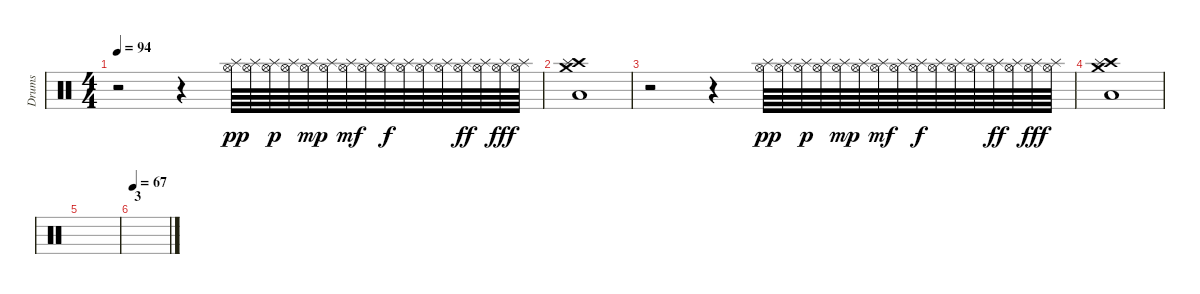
\track ("Drums" "Drums") {instrument percussion}
\staff {score}
\articulation defaults
\ts (4 4)
\tempo 94
\clef neutral
\ks c
r.2{dy fff} r.4 ("Splash (hit)" "Hi-Hat (open)").64{dy pp} ("Splash (hit)" "Hi-Hat (open)").64 ("Splash (hit)" "Hi-Hat (open)").64{dy p} ("Splash (hit)" "Hi-Hat (open)").64 ("Splash (hit)" "Hi-Hat (open)").64{dy mp} ("Splash (hit)" "Hi-Hat (open)").64 ("Splash (hit)" "Hi-Hat (open)").64{dy mf} ("Splash (hit)" "Hi-Hat (open)").64 ("Splash (hit)" "Hi-Hat (open)").64{dy f} ("Splash (hit)" "Hi-Hat (open)").64 ("Splash (hit)" "Hi-Hat (open)").64 ("Splash (hit)" "Hi-Hat (open)").64 ("Splash (hit)" "Hi-Hat (open)").64{dy ff} ("Splash (hit)" "Hi-Hat (open)").64 ("Splash (hit)" "Hi-Hat (open)").64{dy fff} ("Splash (hit)" "Hi-Hat (open)").64 |
("Crash high (hit)" "Low Tom (hit)" "Splash (hit)" "Crash medium (hit)").1 |
r.2 r.4 ("Splash (hit)" "Hi-Hat (open)").64{dy pp} ("Splash (hit)" "Hi-Hat (open)").64 ("Splash (hit)" "Hi-Hat (open)").64{dy p} ("Splash (hit)" "Hi-Hat (open)").64 ("Splash (hit)" "Hi-Hat (open)").64{dy mp} ("Splash (hit)" "Hi-Hat (open)").64 ("Splash (hit)" "Hi-Hat (open)").64{dy mf} ("Splash (hit)" "Hi-Hat (open)").64 ("Splash (hit)" "Hi-Hat (open)").64{dy f} ("Splash (hit)" "Hi-Hat (open)").64 ("Splash (hit)" "Hi-Hat (open)").64 ("Splash (hit)" "Hi-Hat (open)").64 ("Splash (hit)" "Hi-Hat (open)").64{dy ff} ("Splash (hit)" "Hi-Hat (open)").64 ("Splash (hit)" "Hi-Hat (open)").64{dy fff} ("Splash (hit)" "Hi-Hat (open)").64 |
("Crash high (hit)" "Low Tom (hit)" "Splash (hit)" "Crash medium (hit)").1 |
|
\section ("" "3")
\tempo 67
